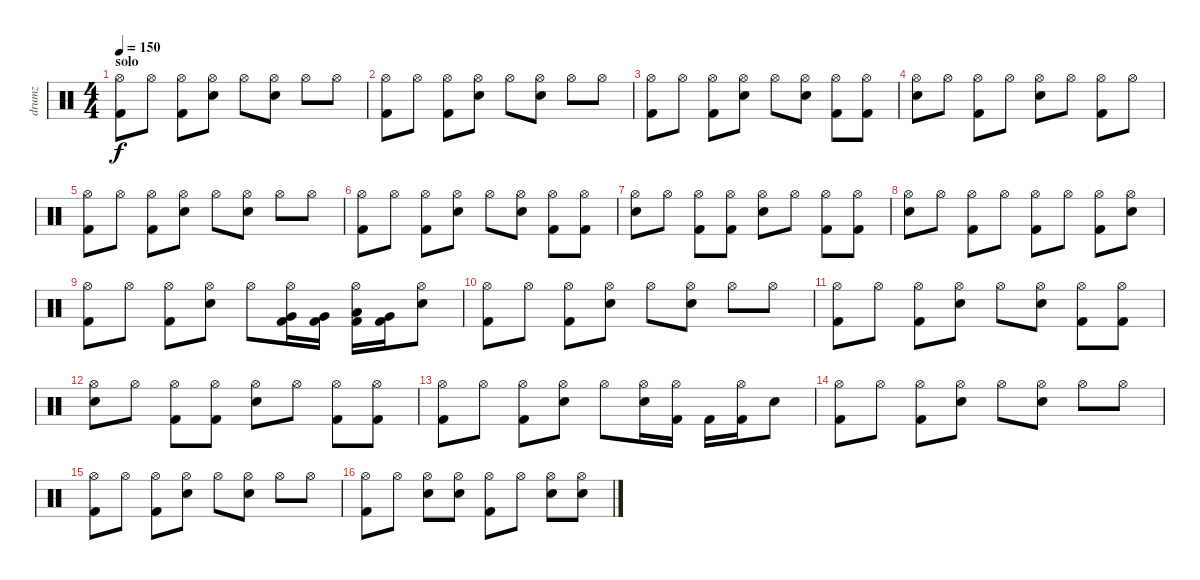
\track ("drumz" "drumz") {instrument percussion}
\staff {score}
\articulation defaults
\ts (4 4)
\section ("" "solo")
\tempo 150
\clef neutral
\ks c
("Hi-Hat (open)" "Kick (hit) 2").8{dy f} "Hi-Hat (open)".8 ("Hi-Hat (open)" "Kick (hit) 2").8 ("Hi-Hat (open)" "Electric Snare (hit)").8 "Hi-Hat (open)".8 ("Hi-Hat (open)" "Electric Snare (hit)").8 "Hi-Hat (open)".8 "Hi-Hat (open)".8 |
("Hi-Hat (open)" "Kick (hit) 2").8 "Hi-Hat (open)".8 ("Hi-Hat (open)" "Kick (hit) 2").8 ("Hi-Hat (open)" "Electric Snare (hit)").8 "Hi-Hat (open)".8 ("Hi-Hat (open)" "Electric Snare (hit)").8 "Hi-Hat (open)".8 "Hi-Hat (open)".8 |
("Hi-Hat (open)" "Kick (hit) 2").8 "Hi-Hat (open)".8 ("Hi-Hat (open)" "Kick (hit) 2").8 ("Hi-Hat (open)" "Electric Snare (hit)").8 "Hi-Hat (open)".8 ("Hi-Hat (open)" "Electric Snare (hit)").8 ("Hi-Hat (open)" "Kick (hit) 2").8 ("Hi-Hat (open)" "Kick (hit) 2").8 |
("Hi-Hat (open)" "Electric Snare (hit)").8 "Hi-Hat (open)".8 ("Hi-Hat (open)" "Kick (hit) 2").8 "Hi-Hat (open)".8 ("Hi-Hat (open)" "Electric Snare (hit)").8 "Hi-Hat (open)".8 ("Hi-Hat (open)" "Kick (hit) 2").8 "Hi-Hat (open)".8 |
("Hi-Hat (open)" "Kick (hit) 2").8 "Hi-Hat (open)".8 ("Hi-Hat (open)" "Kick (hit) 2").8 ("Hi-Hat (open)" "Electric Snare (hit)").8 "Hi-Hat (open)".8 ("Hi-Hat (open)" "Electric Snare (hit)").8 "Hi-Hat (open)".8 "Hi-Hat (open)".8 |
("Hi-Hat (open)" "Kick (hit) 2").8 "Hi-Hat (open)".8 ("Hi-Hat (open)" "Kick (hit) 2").8 ("Hi-Hat (open)" "Electric Snare (hit)").8 "Hi-Hat (open)".8 ("Hi-Hat (open)" "Electric Snare (hit)").8 ("Hi-Hat (open)" "Kick (hit) 2").8 ("Hi-Hat (open)" "Kick (hit) 2").8 |
("Hi-Hat (open)" "Electric Snare (hit)").8 "Hi-Hat (open)".8 ("Hi-Hat (open)" "Kick (hit) 2").8 ("Hi-Hat (open)" "Kick (hit) 2").8 ("Hi-Hat (open)" "Electric Snare (hit)").8 "Hi-Hat (open)".8 ("Hi-Hat (open)" "Kick (hit) 2").8 ("Hi-Hat (open)" "Kick (hit) 2").8 |
("Hi-Hat (open)" "Electric Snare (hit)").8 "Hi-Hat (open)".8 ("Hi-Hat (open)" "Kick (hit) 2").8 "Hi-Hat (open)".8 ("Hi-Hat (open)" "Kick (hit) 2").8 "Hi-Hat (open)".8 ("Hi-Hat (open)" "Kick (hit) 2").8 ("Hi-Hat (open)" "Electric Snare (hit)").8 |
("Hi-Hat (open)" "Kick (hit) 2").8 "Hi-Hat (open)".8 ("Hi-Hat (open)" "Kick (hit) 2").8 ("Hi-Hat (open)" "Electric Snare (hit)").8 "Hi-Hat (open)".8 ("Hi-Hat (open)" "Very Low Tom (hit)" "Kick (hit) 2").16 ("Very Low Tom (hit)" "Kick (hit) 2").16 ("Hi-Hat (open)" "Low Floor Tom (hit)" "Kick (hit) 2").16 ("Very Low Tom (hit)" "Kick (hit) 2").16 ("Hi-Hat (open)" "Electric Snare (hit)").8 |
("Hi-Hat (open)" "Kick (hit) 2").8 "Hi-Hat (open)".8 ("Hi-Hat (open)" "Kick (hit) 2").8 ("Hi-Hat (open)" "Electric Snare (hit)").8 "Hi-Hat (open)".8 ("Hi-Hat (open)" "Electric Snare (hit)").8 "Hi-Hat (open)".8 "Hi-Hat (open)".8 |
("Hi-Hat (open)" "Kick (hit) 2").8 "Hi-Hat (open)".8 ("Hi-Hat (open)" "Kick (hit) 2").8 ("Hi-Hat (open)" "Electric Snare (hit)").8 "Hi-Hat (open)".8 ("Hi-Hat (open)" "Electric Snare (hit)").8 ("Hi-Hat (open)" "Kick (hit) 2").8 ("Hi-Hat (open)" "Kick (hit) 2").8 |
("Hi-Hat (open)" "Electric Snare (hit)").8 "Hi-Hat (open)".8 ("Hi-Hat (open)" "Kick (hit) 2").8 ("Hi-Hat (open)" "Kick (hit) 2").8 ("Hi-Hat (open)" "Electric Snare (hit)").8 "Hi-Hat (open)".8 ("Hi-Hat (open)" "Kick (hit) 2").8 ("Hi-Hat (open)" "Kick (hit) 2").8 |
("Hi-Hat (open)" "Kick (hit) 2").8 "Hi-Hat (open)".8 ("Hi-Hat (open)" "Kick (hit) 2").8 ("Hi-Hat (open)" "Electric Snare (hit)").8 "Hi-Hat (open)".8 ("Hi-Hat (open)" "Electric Snare (hit)").16 ("Hi-Hat (open)" "Kick (hit) 2").16 "Kick (hit) 2".16 ("Hi-Hat (open)" "Kick (hit) 2").16 "Electric Snare (hit)".8 |
("Hi-Hat (open)" "Kick (hit) 2").8 "Hi-Hat (open)".8 ("Hi-Hat (open)" "Kick (hit) 2").8 ("Hi-Hat (open)" "Electric Snare (hit)").8 "Hi-Hat (open)".8 ("Hi-Hat (open)" "Electric Snare (hit)").8 "Hi-Hat (open)".8 "Hi-Hat (open)".8 |
("Hi-Hat (open)" "Kick (hit) 2").8 "Hi-Hat (open)".8 ("Hi-Hat (open)" "Kick (hit) 2").8 ("Hi-Hat (open)" "Electric Snare (hit)").8 "Hi-Hat (open)".8 ("Hi-Hat (open)" "Electric Snare (hit)").8 "Hi-Hat (open)".8 "Hi-Hat (open)".8 |
("Hi-Hat (open)" "Kick (hit) 2").8 "Hi-Hat (open)".8 ("Hi-Hat (open)" "Electric Snare (hit)").8 ("Hi-Hat (open)" "Electric Snare (hit)").8 ("Hi-Hat (open)" "Kick (hit) 2").8 "Hi-Hat (open)".8 ("Hi-Hat (open)" "Electric Snare (hit)").8 ("Hi-Hat (open)" "Electric Snare (hit)").8
